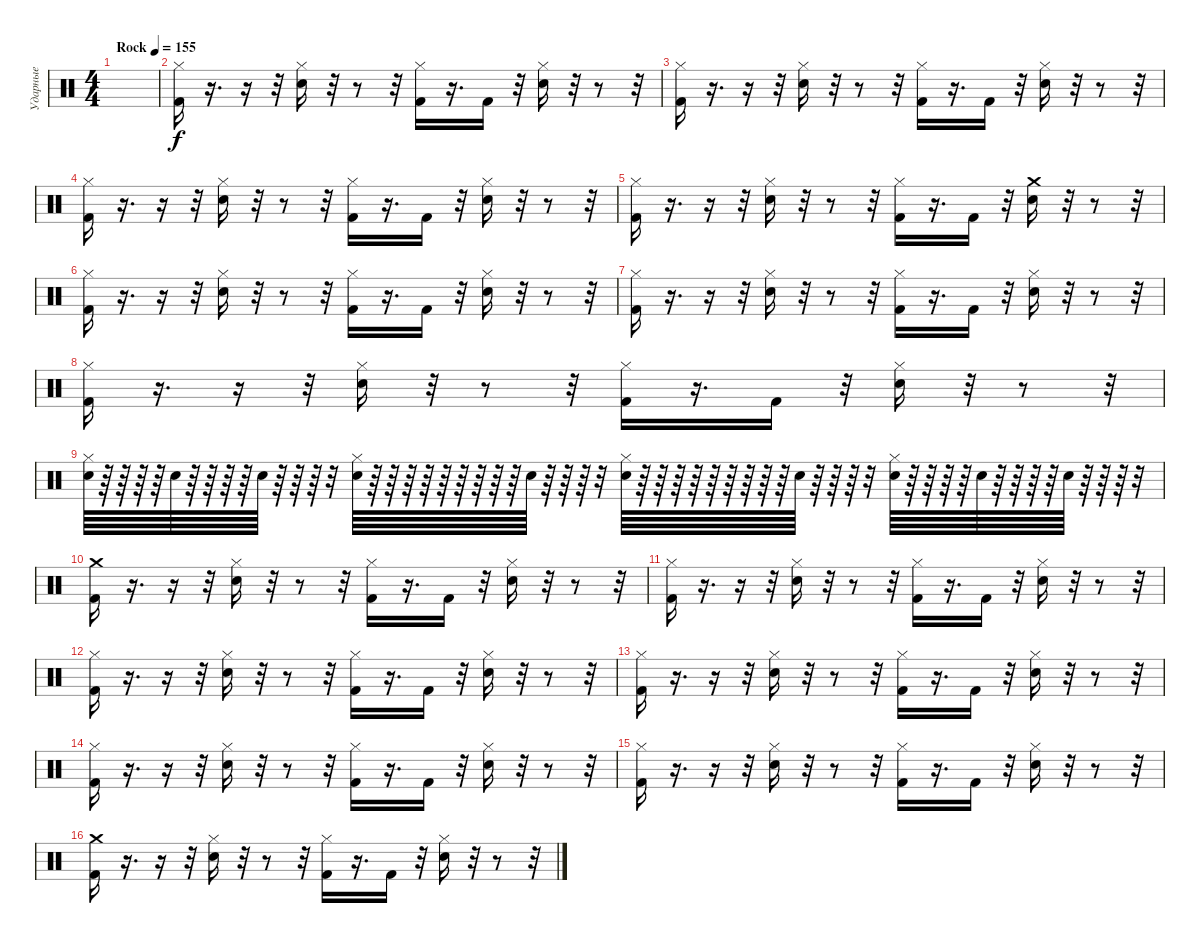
\track ("Ударные" "Ударные") {instrument percussion}
\staff {score}
\articulation defaults
\ts (4 4)
\tempo (155 "Rock")
\clef neutral
\ks c
|
("Hi-Hat (closed)" "Kick (hit) 2").16 r.16{d} r.16 r.32 ("Snare (hit) 2" "Hi-Hat (closed)").16 r.32 r.8 r.32 ("Hi-Hat (closed)" "Kick (hit) 2").16 r.16{d} "Kick (hit) 2".16 r.32 ("Snare (hit) 2" "Hi-Hat (closed)").16 r.32 r.8 r.32 |
("Hi-Hat (closed)" "Kick (hit) 2").16 r.16{d} r.16 r.32 ("Snare (hit) 2" "Hi-Hat (closed)").16 r.32 r.8 r.32 ("Hi-Hat (closed)" "Kick (hit) 2").16 r.16{d} "Kick (hit) 2".16 r.32 ("Snare (hit) 2" "Hi-Hat (closed)").16 r.32 r.8 r.32 |
("Hi-Hat (closed)" "Kick (hit) 2").16 r.16{d} r.16 r.32 ("Snare (hit) 2" "Hi-Hat (closed)").16 r.32 r.8 r.32 ("Hi-Hat (closed)" "Kick (hit) 2").16 r.16{d} "Kick (hit) 2".16 r.32 ("Snare (hit) 2" "Hi-Hat (closed)").16 r.32 r.8 r.32 |
("Hi-Hat (closed)" "Kick (hit) 2").16 r.16{d} r.16 r.32 ("Snare (hit) 2" "Hi-Hat (closed)").16 r.32 r.8 r.32 ("Hi-Hat (closed)" "Kick (hit) 2").16 r.16{d} "Kick (hit) 2".16 r.32 ("Snare (hit) 2" "Crash medium (hit)").16 r.32 r.8 r.32 |
("Hi-Hat (closed)" "Kick (hit) 2").16 r.16{d} r.16 r.32 ("Snare (hit) 2" "Hi-Hat (closed)").16 r.32 r.8 r.32 ("Hi-Hat (closed)" "Kick (hit) 2").16 r.16{d} "Kick (hit) 2".16 r.32 ("Snare (hit) 2" "Hi-Hat (closed)").16 r.32 r.8 r.32 |
("Hi-Hat (closed)" "Kick (hit) 2").16 r.16{d} r.16 r.32 ("Snare (hit) 2" "Hi-Hat (closed)").16 r.32 r.8 r.32 ("Hi-Hat (closed)" "Kick (hit) 2").16 r.16{d} "Kick (hit) 2".16 r.32 ("Snare (hit) 2" "Hi-Hat (closed)").16 r.32 r.8 r.32 |
("Hi-Hat (closed)" "Kick (hit) 2").16 r.16{d} r.16 r.32 ("Snare (hit) 2" "Hi-Hat (closed)").16 r.32 r.8 r.32 ("Hi-Hat (closed)" "Kick (hit) 2").16 r.16{d} "Kick (hit) 2".16 r.32 ("Snare (hit) 2" "Hi-Hat (closed)").16 r.32 r.8 r.32 |
("Electric Snare (hit)" "Hi-Hat (closed)").64 r.64 r.64 r.64 r.64 "Electric Snare (hit)".64 r.64 r.64 r.64 r.64 "Electric Snare (hit)".64 r.64 r.64 r.64 r.32 ("Electric Snare (hit)" "Hi-Hat (closed)").64 r.64 r.64 r.64 r.64 r.64 r.64 r.64 r.64 r.64 "Electric Snare (hit)".64 r.64 r.64 r.64 r.32 ("Electric Snare (hit)" "Hi-Hat (closed)").64 r.64 r.64 r.64 r.64 r.64 r.64 r.64 r.64 r.64 "Snare (hit) 2".64 r.64 r.64 r.64 r.32 ("Electric Snare (hit)" "Hi-Hat (closed)").64 r.64 r.64 r.64 r.64 "Electric Snare (hit)".64 r.64 r.64 r.64 r.64 "Electric Snare (hit)".64 r.64 r.64 r.64 r.32 |
("Crash medium (hit)" "Kick (hit) 2").16 r.16{d} r.16 r.32 ("Snare (hit) 2" "Hi-Hat (closed)").16 r.32 r.8 r.32 ("Hi-Hat (closed)" "Kick (hit) 2").16 r.16{d} "Kick (hit) 2".16 r.32 ("Snare (hit) 2" "Hi-Hat (closed)").16 r.32 r.8 r.32 |
("Hi-Hat (closed)" "Kick (hit) 2").16 r.16{d} r.16 r.32 ("Snare (hit) 2" "Hi-Hat (closed)").16 r.32 r.8 r.32 ("Hi-Hat (closed)" "Kick (hit) 2").16 r.16{d} "Kick (hit) 2".16 r.32 ("Snare (hit) 2" "Hi-Hat (closed)").16 r.32 r.8 r.32 |
("Hi-Hat (closed)" "Kick (hit) 2").16 r.16{d} r.16 r.32 ("Snare (hit) 2" "Hi-Hat (closed)").16 r.32 r.8 r.32 ("Hi-Hat (closed)" "Kick (hit) 2").16 r.16{d} "Kick (hit) 2".16 r.32 ("Snare (hit) 2" "Hi-Hat (closed)").16 r.32 r.8 r.32 |
("Hi-Hat (closed)" "Kick (hit) 2").16 r.16{d} r.16 r.32 ("Snare (hit) 2" "Hi-Hat (closed)").16 r.32 r.8 r.32 ("Hi-Hat (closed)" "Kick (hit) 2").16 r.16{d} "Kick (hit) 2".16 r.32 ("Snare (hit) 2" "Hi-Hat (closed)").16 r.32 r.8 r.32 |
("Hi-Hat (closed)" "Kick (hit) 2").16 r.16{d} r.16 r.32 ("Snare (hit) 2" "Hi-Hat (closed)").16 r.32 r.8 r.32 ("Hi-Hat (closed)" "Kick (hit) 2").16 r.16{d} "Kick (hit) 2".16 r.32 ("Snare (hit) 2" "Hi-Hat (closed)").16 r.32 r.8 r.32 |
("Hi-Hat (closed)" "Kick (hit) 2").16 r.16{d} r.16 r.32 ("Snare (hit) 2" "Hi-Hat (closed)").16 r.32 r.8 r.32 ("Hi-Hat (closed)" "Kick (hit) 2").16 r.16{d} "Kick (hit) 2".16 r.32 ("Snare (hit) 2" "Hi-Hat (closed)").16 r.32 r.8 r.32 |
("Crash medium (hit)" "Kick (hit) 2").16 r.16{d} r.16 r.32 ("Snare (hit) 2" "Hi-Hat (closed)").16 r.32 r.8 r.32 ("Hi-Hat (closed)" "Kick (hit) 2").16 r.16{d} "Kick (hit) 2".16 r.32 ("Snare (hit) 2" "Hi-Hat (closed)").16 r.32 r.8 r.32
